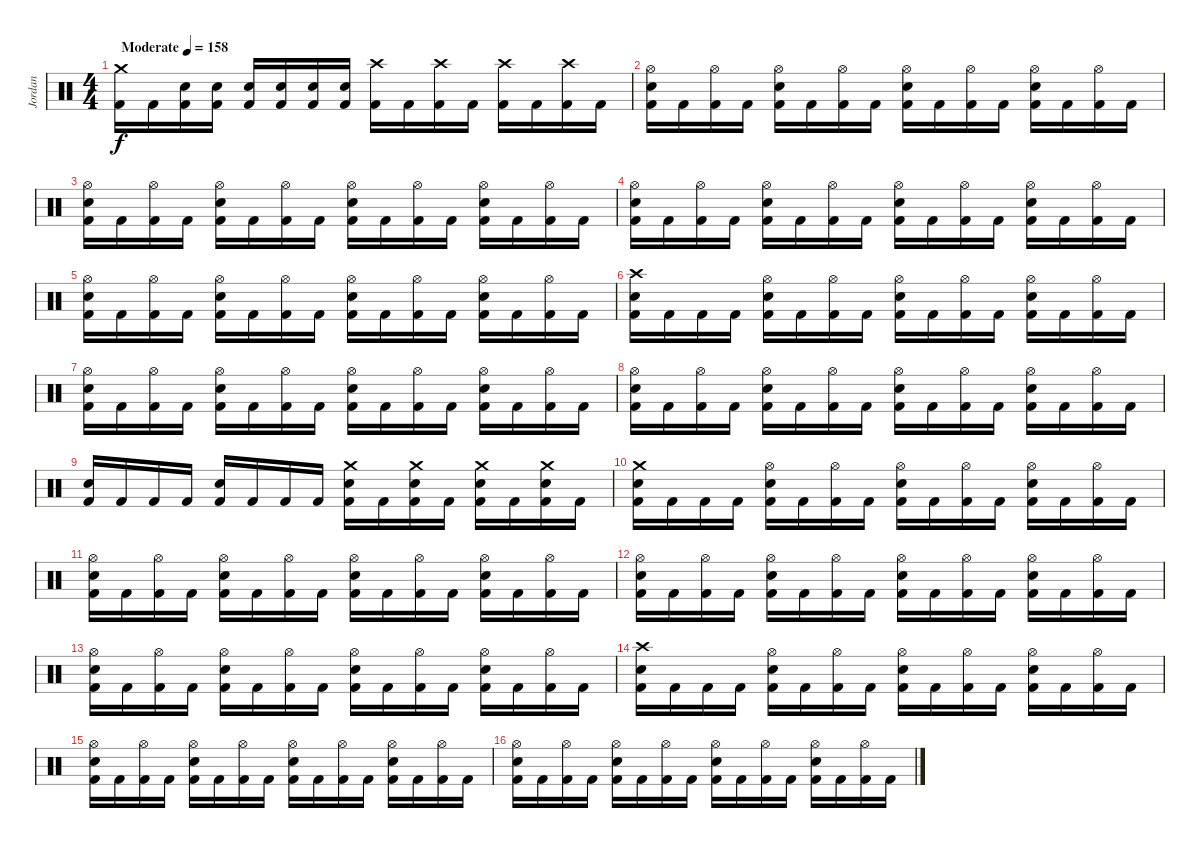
\track ("Jordan" "Jordan") {instrument percussion}
\staff {score}
\articulation defaults
\ts (4 4)
\tempo (158 "Moderate")
\clef neutral
\ks c
("Crash medium (hit)" "Kick (hit) 2").16{dy f} "Kick (hit) 2".16 ("Electric Snare (hit)" "Kick (hit) 2").16 ("Electric Snare (hit)" "Kick (hit) 2").16 ("Electric Snare (hit)" "Kick (hit) 2").16 ("Electric Snare (hit)" "Kick (hit) 2").16 ("Electric Snare (hit)" "Kick (hit) 2").16 ("Electric Snare (hit)" "Kick (hit) 2").16 ("Crash high (hit)" "Kick (hit) 2").16 "Kick (hit) 2".16 ("Crash high (hit)" "Kick (hit) 2").16 "Kick (hit) 2".16 ("Crash high (hit)" "Kick (hit) 2").16 "Kick (hit) 2".16 ("Crash high (hit)" "Kick (hit) 2").16 "Kick (hit) 2".16 |
("Hi-Hat (open)" "Electric Snare (hit)" "Kick (hit) 2").16 "Kick (hit) 2".16 ("Hi-Hat (open)" "Kick (hit) 2").16 "Kick (hit) 2".16 ("Hi-Hat (open)" "Electric Snare (hit)" "Kick (hit) 2").16 "Kick (hit) 2".16 ("Hi-Hat (open)" "Kick (hit) 2").16 "Kick (hit) 2".16 ("Hi-Hat (open)" "Electric Snare (hit)" "Kick (hit) 2").16 "Kick (hit) 2".16 ("Hi-Hat (open)" "Kick (hit) 2").16 "Kick (hit) 2".16 ("Hi-Hat (open)" "Electric Snare (hit)" "Kick (hit) 2").16 "Kick (hit) 2".16 ("Hi-Hat (open)" "Kick (hit) 2").16 "Kick (hit) 2".16 |
("Hi-Hat (open)" "Electric Snare (hit)" "Kick (hit) 2").16 "Kick (hit) 2".16 ("Hi-Hat (open)" "Kick (hit) 2").16 "Kick (hit) 2".16 ("Hi-Hat (open)" "Electric Snare (hit)" "Kick (hit) 2").16 "Kick (hit) 2".16 ("Hi-Hat (open)" "Kick (hit) 2").16 "Kick (hit) 2".16 ("Hi-Hat (open)" "Electric Snare (hit)" "Kick (hit) 2").16 "Kick (hit) 2".16 ("Hi-Hat (open)" "Kick (hit) 2").16 "Kick (hit) 2".16 ("Hi-Hat (open)" "Electric Snare (hit)" "Kick (hit) 2").16 "Kick (hit) 2".16 ("Hi-Hat (open)" "Kick (hit) 2").16 "Kick (hit) 2".16 |
("Hi-Hat (open)" "Electric Snare (hit)" "Kick (hit) 2").16 "Kick (hit) 2".16 ("Hi-Hat (open)" "Kick (hit) 2").16 "Kick (hit) 2".16 ("Hi-Hat (open)" "Electric Snare (hit)" "Kick (hit) 2").16 "Kick (hit) 2".16 ("Hi-Hat (open)" "Kick (hit) 2").16 "Kick (hit) 2".16 ("Hi-Hat (open)" "Electric Snare (hit)" "Kick (hit) 2").16 "Kick (hit) 2".16 ("Hi-Hat (open)" "Kick (hit) 2").16 "Kick (hit) 2".16 ("Hi-Hat (open)" "Electric Snare (hit)" "Kick (hit) 2").16 "Kick (hit) 2".16 ("Hi-Hat (open)" "Kick (hit) 2").16 "Kick (hit) 2".16 |
("Hi-Hat (open)" "Electric Snare (hit)" "Kick (hit) 2").16 "Kick (hit) 2".16 ("Hi-Hat (open)" "Kick (hit) 2").16 "Kick (hit) 2".16 ("Hi-Hat (open)" "Electric Snare (hit)" "Kick (hit) 2").16 "Kick (hit) 2".16 ("Hi-Hat (open)" "Kick (hit) 2").16 "Kick (hit) 2".16 ("Hi-Hat (open)" "Electric Snare (hit)" "Kick (hit) 2").16 "Kick (hit) 2".16 ("Hi-Hat (open)" "Kick (hit) 2").16 "Kick (hit) 2".16 ("Hi-Hat (open)" "Electric Snare (hit)" "Kick (hit) 2").16 "Kick (hit) 2".16 ("Hi-Hat (open)" "Kick (hit) 2").16 "Kick (hit) 2".16 |
("Crash high (hit)" "Electric Snare (hit)" "Kick (hit) 2").16 "Kick (hit) 2".16 "Kick (hit) 2".16 "Kick (hit) 2".16 ("Hi-Hat (open)" "Electric Snare (hit)" "Kick (hit) 2").16 "Kick (hit) 2".16 ("Hi-Hat (open)" "Kick (hit) 2").16 "Kick (hit) 2".16 ("Hi-Hat (open)" "Electric Snare (hit)" "Kick (hit) 2").16 "Kick (hit) 2".16 ("Hi-Hat (open)" "Kick (hit) 2").16 "Kick (hit) 2".16 ("Hi-Hat (open)" "Electric Snare (hit)" "Kick (hit) 2").16 "Kick (hit) 2".16 ("Hi-Hat (open)" "Kick (hit) 2").16 "Kick (hit) 2".16 |
("Hi-Hat (open)" "Electric Snare (hit)" "Kick (hit) 2").16 "Kick (hit) 2".16 ("Hi-Hat (open)" "Kick (hit) 2").16 "Kick (hit) 2".16 ("Hi-Hat (open)" "Electric Snare (hit)" "Kick (hit) 2").16 "Kick (hit) 2".16 ("Hi-Hat (open)" "Kick (hit) 2").16 "Kick (hit) 2".16 ("Hi-Hat (open)" "Electric Snare (hit)" "Kick (hit) 2").16 "Kick (hit) 2".16 ("Hi-Hat (open)" "Kick (hit) 2").16 "Kick (hit) 2".16 ("Hi-Hat (open)" "Electric Snare (hit)" "Kick (hit) 2").16 "Kick (hit) 2".16 ("Hi-Hat (open)" "Kick (hit) 2").16 "Kick (hit) 2".16 |
("Hi-Hat (open)" "Electric Snare (hit)" "Kick (hit) 2").16 "Kick (hit) 2".16 ("Hi-Hat (open)" "Kick (hit) 2").16 "Kick (hit) 2".16 ("Hi-Hat (open)" "Electric Snare (hit)" "Kick (hit) 2").16 "Kick (hit) 2".16 ("Hi-Hat (open)" "Kick (hit) 2").16 "Kick (hit) 2".16 ("Hi-Hat (open)" "Electric Snare (hit)" "Kick (hit) 2").16 "Kick (hit) 2".16 ("Hi-Hat (open)" "Kick (hit) 2").16 "Kick (hit) 2".16 ("Hi-Hat (open)" "Electric Snare (hit)" "Kick (hit) 2").16 "Kick (hit) 2".16 ("Hi-Hat (open)" "Kick (hit) 2").16 "Kick (hit) 2".16 |
("Electric Snare (hit)" "Kick (hit) 2").16 "Kick (hit) 2".16 "Kick (hit) 2".16 "Kick (hit) 2".16 ("Electric Snare (hit)" "Kick (hit) 2").16 "Kick (hit) 2".16 "Kick (hit) 2".16 "Kick (hit) 2".16 ("Crash medium (hit)" "Electric Snare (hit)" "Kick (hit) 2").16 "Kick (hit) 2".16 ("Crash medium (hit)" "Electric Snare (hit)" "Kick (hit) 2").16 "Kick (hit) 2".16 ("Crash medium (hit)" "Electric Snare (hit)" "Kick (hit) 2").16 "Kick (hit) 2".16 ("Crash medium (hit)" "Electric Snare (hit)" "Kick (hit) 2").16 "Kick (hit) 2".16 |
("Crash medium (hit)" "Electric Snare (hit)" "Kick (hit) 2").16 "Kick (hit) 2".16 "Kick (hit) 2".16 "Kick (hit) 2".16 ("Hi-Hat (open)" "Electric Snare (hit)" "Kick (hit) 2").16 "Kick (hit) 2".16 ("Hi-Hat (open)" "Kick (hit) 2").16 "Kick (hit) 2".16 ("Hi-Hat (open)" "Electric Snare (hit)" "Kick (hit) 2").16 "Kick (hit) 2".16 ("Hi-Hat (open)" "Kick (hit) 2").16 "Kick (hit) 2".16 ("Hi-Hat (open)" "Electric Snare (hit)" "Kick (hit) 2").16 "Kick (hit) 2".16 ("Hi-Hat (open)" "Kick (hit) 2").16 "Kick (hit) 2".16 |
("Hi-Hat (open)" "Electric Snare (hit)" "Kick (hit) 2").16 "Kick (hit) 2".16 ("Hi-Hat (open)" "Kick (hit) 2").16 "Kick (hit) 2".16 ("Hi-Hat (open)" "Electric Snare (hit)" "Kick (hit) 2").16 "Kick (hit) 2".16 ("Hi-Hat (open)" "Kick (hit) 2").16 "Kick (hit) 2".16 ("Hi-Hat (open)" "Electric Snare (hit)" "Kick (hit) 2").16 "Kick (hit) 2".16 ("Hi-Hat (open)" "Kick (hit) 2").16 "Kick (hit) 2".16 ("Hi-Hat (open)" "Electric Snare (hit)" "Kick (hit) 2").16 "Kick (hit) 2".16 ("Hi-Hat (open)" "Kick (hit) 2").16 "Kick (hit) 2".16 |
("Hi-Hat (open)" "Electric Snare (hit)" "Kick (hit) 2").16 "Kick (hit) 2".16 ("Hi-Hat (open)" "Kick (hit) 2").16 "Kick (hit) 2".16 ("Hi-Hat (open)" "Electric Snare (hit)" "Kick (hit) 2").16 "Kick (hit) 2".16 ("Hi-Hat (open)" "Kick (hit) 2").16 "Kick (hit) 2".16 ("Hi-Hat (open)" "Electric Snare (hit)" "Kick (hit) 2").16 "Kick (hit) 2".16 ("Hi-Hat (open)" "Kick (hit) 2").16 "Kick (hit) 2".16 ("Hi-Hat (open)" "Electric Snare (hit)" "Kick (hit) 2").16 "Kick (hit) 2".16 ("Hi-Hat (open)" "Kick (hit) 2").16 "Kick (hit) 2".16 |
("Hi-Hat (open)" "Electric Snare (hit)" "Kick (hit) 2").16 "Kick (hit) 2".16 ("Hi-Hat (open)" "Kick (hit) 2").16 "Kick (hit) 2".16 ("Hi-Hat (open)" "Electric Snare (hit)" "Kick (hit) 2").16 "Kick (hit) 2".16 ("Hi-Hat (open)" "Kick (hit) 2").16 "Kick (hit) 2".16 ("Hi-Hat (open)" "Electric Snare (hit)" "Kick (hit) 2").16 "Kick (hit) 2".16 ("Hi-Hat (open)" "Kick (hit) 2").16 "Kick (hit) 2".16 ("Hi-Hat (open)" "Electric Snare (hit)" "Kick (hit) 2").16 "Kick (hit) 2".16 ("Hi-Hat (open)" "Kick (hit) 2").16 "Kick (hit) 2".16 |
("Crash high (hit)" "Electric Snare (hit)" "Kick (hit) 2").16 "Kick (hit) 2".16 "Kick (hit) 2".16 "Kick (hit) 2".16 ("Hi-Hat (open)" "Electric Snare (hit)" "Kick (hit) 2").16 "Kick (hit) 2".16 ("Hi-Hat (open)" "Kick (hit) 2").16 "Kick (hit) 2".16 ("Hi-Hat (open)" "Electric Snare (hit)" "Kick (hit) 2").16 "Kick (hit) 2".16 ("Hi-Hat (open)" "Kick (hit) 2").16 "Kick (hit) 2".16 ("Hi-Hat (open)" "Electric Snare (hit)" "Kick (hit) 2").16 "Kick (hit) 2".16 ("Hi-Hat (open)" "Kick (hit) 2").16 "Kick (hit) 2".16 |
("Hi-Hat (open)" "Electric Snare (hit)" "Kick (hit) 2").16 "Kick (hit) 2".16 ("Hi-Hat (open)" "Kick (hit) 2").16 "Kick (hit) 2".16 ("Hi-Hat (open)" "Electric Snare (hit)" "Kick (hit) 2").16 "Kick (hit) 2".16 ("Hi-Hat (open)" "Kick (hit) 2").16 "Kick (hit) 2".16 ("Hi-Hat (open)" "Electric Snare (hit)" "Kick (hit) 2").16 "Kick (hit) 2".16 ("Hi-Hat (open)" "Kick (hit) 2").16 "Kick (hit) 2".16 ("Hi-Hat (open)" "Electric Snare (hit)" "Kick (hit) 2").16 "Kick (hit) 2".16 ("Hi-Hat (open)" "Kick (hit) 2").16 "Kick (hit) 2".16 |
("Hi-Hat (open)" "Electric Snare (hit)" "Kick (hit) 2").16 "Kick (hit) 2".16 ("Hi-Hat (open)" "Kick (hit) 2").16 "Kick (hit) 2".16 ("Hi-Hat (open)" "Electric Snare (hit)" "Kick (hit) 2").16 "Kick (hit) 2".16 ("Hi-Hat (open)" "Kick (hit) 2").16 "Kick (hit) 2".16 ("Hi-Hat (open)" "Electric Snare (hit)" "Kick (hit) 2").16 "Kick (hit) 2".16 ("Hi-Hat (open)" "Kick (hit) 2").16 "Kick (hit) 2".16 ("Hi-Hat (open)" "Electric Snare (hit)" "Kick (hit) 2").16 "Kick (hit) 2".16 ("Hi-Hat (open)" "Kick (hit) 2").16 "Kick (hit) 2".16
